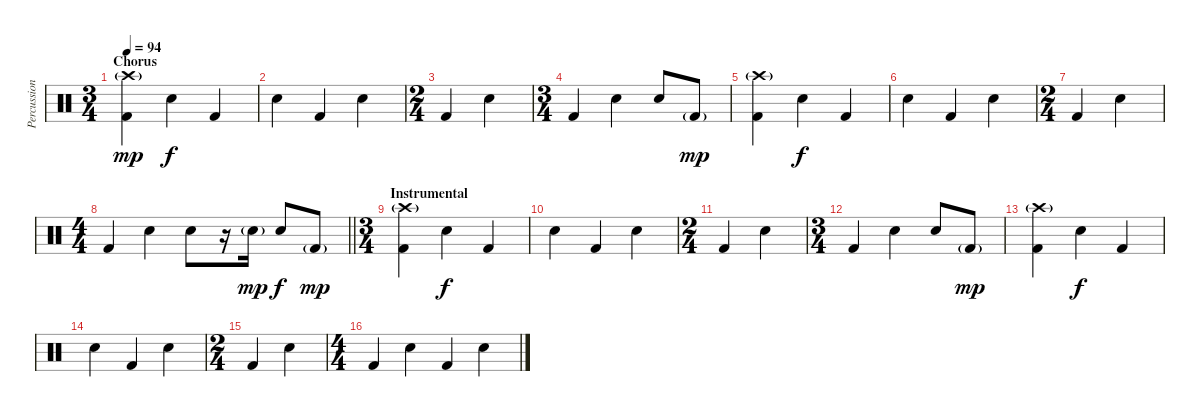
\track ("Percussion" "Percussion") {instrument percussion}
\staff {score}
\articulation defaults
\ts (3 4)
\section ("" "Chorus")
\tempo 94
\clef neutral
\ks c
("Crash high (hit)"{g} "Kick (hit) 2").4{dy mp} "Snare (hit) 2".4{dy f} "Kick (hit) 2".4 |
"Snare (hit) 2".4 "Kick (hit) 2".4 "Snare (hit) 2".4 |
\ts (2 4)
"Kick (hit) 2".4 "Snare (hit) 2".4 |
\ts (3 4)
"Kick (hit) 2".4 "Snare (hit) 2".4 "Snare (hit) 2".8 "Kick (hit) 2"{g}.8{dy mp} |
("Crash high (hit)"{g} "Kick (hit) 2").4 "Snare (hit) 2".4{dy f} "Kick (hit) 2".4 |
"Snare (hit) 2".4 "Kick (hit) 2".4 "Snare (hit) 2".4 |
\ts (2 4)
"Kick (hit) 2".4 "Snare (hit) 2".4 |
\ts (4 4)
\barLineRight lightlight "Kick (hit) 2".4 "Snare (hit) 2".4 "Snare (hit) 2".8
r.16 "Snare (hit) 2"{g}.16{dy mp} "Snare (hit) 2".8{dy f} "Kick (hit) 2"{g}.8{dy mp} |
\ts (3 4)
\section ("" "Instrumental")
("Crash high (hit)"{g} "Kick (hit) 2").4 "Snare (hit) 2".4{dy f} "Kick (hit) 2".4 |
"Snare (hit) 2".4 "Kick (hit) 2".4 "Snare (hit) 2".4 |
\ts (2 4)
"Kick (hit) 2".4 "Snare (hit) 2".4 |
\ts (3 4)
"Kick (hit) 2".4 "Snare (hit) 2".4 "Snare (hit) 2".8 "Kick (hit) 2"{g}.8{dy mp} |
("Crash high (hit)"{g} "Kick (hit) 2").4 "Snare (hit) 2".4{dy f} "Kick (hit) 2".4 |
"Snare (hit) 2".4 "Kick (hit) 2".4 "Snare (hit) 2".4 |
\ts (2 4)
"Kick (hit) 2".4 "Snare (hit) 2".4 |
\ts (4 4)
"Kick (hit) 2".4 "Snare (hit) 2".4 "Kick (hit) 2".4 "Snare (hit) 2".4
